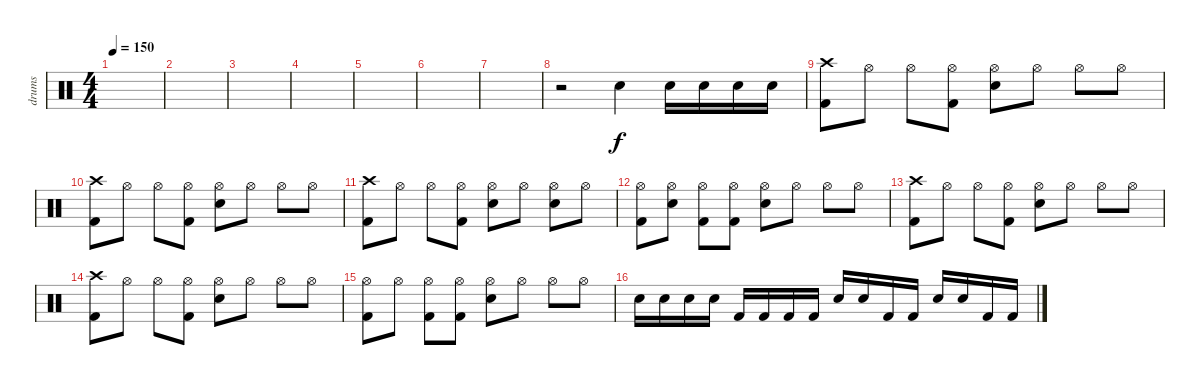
\track ("drums" "drums") {instrument percussion}
\staff {score}
\articulation defaults
\ts (4 4)
\tempo 150
\clef neutral
\ks c
|
|
|
|
|
|
|
r.2 "Electric Snare (hit)".4 "Electric Snare (hit)".16 "Electric Snare (hit)".16 "Electric Snare (hit)".16 "Electric Snare (hit)".16 |
("Crash high (hit)" "Kick (hit) 2").8 "Hi-Hat (open)".8 "Hi-Hat (open)".8 ("Hi-Hat (open)" "Kick (hit) 2").8 ("Hi-Hat (open)" "Electric Snare (hit)").8 "Hi-Hat (open)".8 "Hi-Hat (open)".8 "Hi-Hat (open)".8 |
("Crash high (hit)" "Kick (hit) 2").8 "Hi-Hat (open)".8 "Hi-Hat (open)".8 ("Hi-Hat (open)" "Kick (hit) 2").8 ("Hi-Hat (open)" "Electric Snare (hit)").8 "Hi-Hat (open)".8 "Hi-Hat (open)".8 "Hi-Hat (open)".8 |
("Crash high (hit)" "Kick (hit) 2").8 "Hi-Hat (open)".8 "Hi-Hat (open)".8 ("Hi-Hat (open)" "Kick (hit) 2").8 ("Hi-Hat (open)" "Electric Snare (hit)").8 "Hi-Hat (open)".8 ("Hi-Hat (open)" "Electric Snare (hit)").8 "Hi-Hat (open)".8 |
("Hi-Hat (open)" "Kick (hit) 2").8 ("Hi-Hat (open)" "Electric Snare (hit)").8 ("Hi-Hat (open)" "Kick (hit) 2").8 ("Hi-Hat (open)" "Kick (hit) 2").8 ("Hi-Hat (open)" "Electric Snare (hit)").8 "Hi-Hat (open)".8 "Hi-Hat (open)".8 "Hi-Hat (open)".8 |
("Crash high (hit)" "Kick (hit) 2").8 "Hi-Hat (open)".8 "Hi-Hat (open)".8 ("Hi-Hat (open)" "Kick (hit) 2").8 ("Hi-Hat (open)" "Electric Snare (hit)").8 "Hi-Hat (open)".8 "Hi-Hat (open)".8 "Hi-Hat (open)".8 |
("Crash high (hit)" "Kick (hit) 2").8 "Hi-Hat (open)".8 "Hi-Hat (open)".8 ("Hi-Hat (open)" "Kick (hit) 2").8 ("Hi-Hat (open)" "Electric Snare (hit)").8 "Hi-Hat (open)".8 "Hi-Hat (open)".8 "Hi-Hat (open)".8 |
("Hi-Hat (open)" "Kick (hit) 2").8 "Hi-Hat (open)".8 ("Hi-Hat (open)" "Kick (hit) 2").8 ("Hi-Hat (open)" "Kick (hit) 2").8 ("Hi-Hat (open)" "Electric Snare (hit)").8 "Hi-Hat (open)".8 "Hi-Hat (open)".8 "Hi-Hat (open)".8 |
"Electric Snare (hit)".16 "Electric Snare (hit)".16 "Electric Snare (hit)".16 "Electric Snare (hit)".16 "Kick (hit) 2".16 "Kick (hit) 2".16 "Kick (hit) 2".16 "Kick (hit) 2".16 "Electric Snare (hit)".16 "Electric Snare (hit)".16 "Kick (hit) 2".16 "Kick (hit) 2".16 "Electric Snare (hit)".16 "Electric Snare (hit)".16 "Kick (hit) 2".16 "Kick (hit) 2".16
